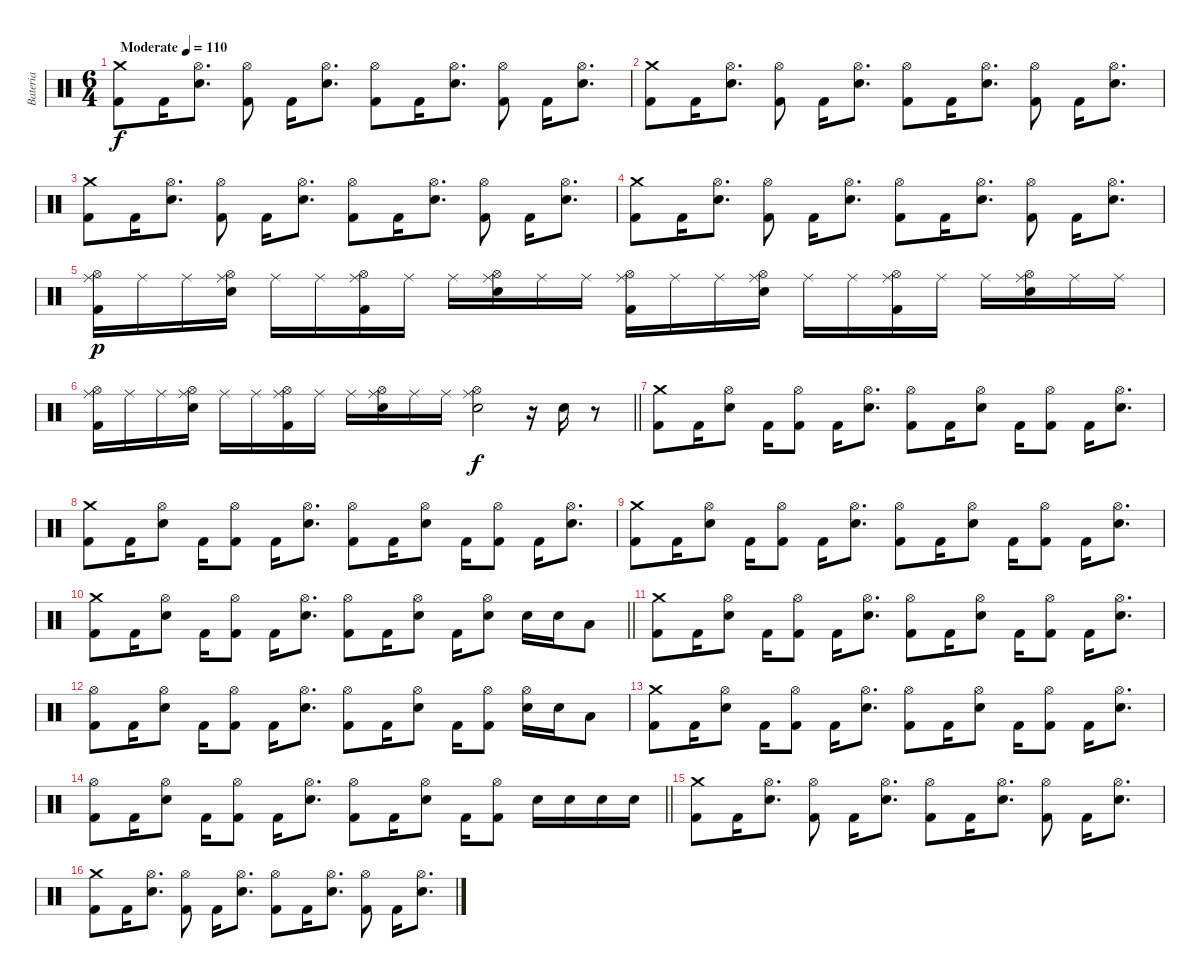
\track ("Bateria" "Bateria") {instrument percussion}
\staff {score}
\articulation defaults
\ts (6 4)
\tempo (110 "Moderate")
\clef neutral
\ks c
("Crash medium (hit)" "Kick (hit) 2").8{dy f} "Kick (hit) 2".16 ("Hi-Hat (open)" "Snare (hit) 2").8{d} ("Hi-Hat (open)" "Kick (hit) 2").8 "Kick (hit) 2".16 ("Hi-Hat (open)" "Snare (hit) 2").8{d} ("Hi-Hat (open)" "Kick (hit) 2").8 "Kick (hit) 2".16 ("Hi-Hat (open)" "Snare (hit) 2").8{d} ("Hi-Hat (open)" "Kick (hit) 2").8 "Kick (hit) 2".16 ("Hi-Hat (open)" "Snare (hit) 2").8{d} |
("Crash medium (hit)" "Kick (hit) 2").8 "Kick (hit) 2".16 ("Hi-Hat (open)" "Snare (hit) 2").8{d} ("Hi-Hat (open)" "Kick (hit) 2").8 "Kick (hit) 2".16 ("Hi-Hat (open)" "Snare (hit) 2").8{d} ("Hi-Hat (open)" "Kick (hit) 2").8 "Kick (hit) 2".16 ("Hi-Hat (open)" "Snare (hit) 2").8{d} ("Hi-Hat (open)" "Kick (hit) 2").8 "Kick (hit) 2".16 ("Hi-Hat (open)" "Snare (hit) 2").8{d} |
("Crash medium (hit)" "Kick (hit) 2").8 "Kick (hit) 2".16 ("Hi-Hat (open)" "Snare (hit) 2").8{d} ("Hi-Hat (open)" "Kick (hit) 2").8 "Kick (hit) 2".16 ("Hi-Hat (open)" "Snare (hit) 2").8{d} ("Hi-Hat (open)" "Kick (hit) 2").8 "Kick (hit) 2".16 ("Hi-Hat (open)" "Snare (hit) 2").8{d} ("Hi-Hat (open)" "Kick (hit) 2").8 "Kick (hit) 2".16 ("Hi-Hat (open)" "Snare (hit) 2").8{d} |
("Crash medium (hit)" "Kick (hit) 2").8 "Kick (hit) 2".16 ("Hi-Hat (open)" "Snare (hit) 2").8{d} ("Hi-Hat (open)" "Kick (hit) 2").8 "Kick (hit) 2".16 ("Hi-Hat (open)" "Snare (hit) 2").8{d} ("Hi-Hat (open)" "Kick (hit) 2").8 "Kick (hit) 2".16 ("Hi-Hat (open)" "Snare (hit) 2").8{d} ("Hi-Hat (open)" "Kick (hit) 2").8 "Kick (hit) 2".16 ("Hi-Hat (open)" "Snare (hit) 2").8{d} |
("Ride (middle)" "Hi-Hat (open)" "Kick (hit) 2").16{dy p} "Ride (middle)".16 "Ride (middle)".16 ("Ride (middle)" "Hi-Hat (open)" "Snare (hit) 2").16 "Ride (middle)".16 "Ride (middle)".16 ("Ride (middle)" "Hi-Hat (open)" "Kick (hit) 2").16 "Ride (middle)".16 "Ride (middle)".16 ("Ride (middle)" "Hi-Hat (open)" "Snare (hit) 2").16 "Ride (middle)".16 "Ride (middle)".16 ("Ride (middle)" "Hi-Hat (open)" "Kick (hit) 2").16 "Ride (middle)".16 "Ride (middle)".16 ("Ride (middle)" "Hi-Hat (open)" "Snare (hit) 2").16 "Ride (middle)".16 "Ride (middle)".16 ("Ride (middle)" "Hi-Hat (open)" "Kick (hit) 2").16 "Ride (middle)".16 "Ride (middle)".16 ("Ride (middle)" "Hi-Hat (open)" "Snare (hit) 2").16 "Ride (middle)".16 "Ride (middle)".16 |
\barLineRight lightlight
("Ride (middle)" "Hi-Hat (open)" "Kick (hit) 2").16 "Ride (middle)".16 "Ride (middle)".16 ("Ride (middle)" "Hi-Hat (open)" "Snare (hit) 2").16 "Ride (middle)".16 "Ride (middle)".16 ("Ride (middle)" "Hi-Hat (open)" "Kick (hit) 2").16 "Ride (middle)".16 "Ride (middle)".16 ("Ride (middle)" "Hi-Hat (open)" "Snare (hit) 2").16 "Ride (middle)".16 "Ride (middle)".16 ("Ride (middle)" "Snare (hit) 2" "Hi-Hat (open)").2{dy f} r.16 "Snare (hit) 2".16 r.8 |
("Crash medium (hit)" "Kick (hit) 2").8 "Kick (hit) 2".16 ("Hi-Hat (open)" "Snare (hit) 2").8 "Kick (hit) 2".16 ("Hi-Hat (open)" "Kick (hit) 2").8 "Kick (hit) 2".16 ("Hi-Hat (open)" "Snare (hit) 2").8{d} ("Hi-Hat (open)" "Kick (hit) 2").8 "Kick (hit) 2".16 ("Hi-Hat (open)" "Snare (hit) 2").8 "Kick (hit) 2".16 ("Hi-Hat (open)" "Kick (hit) 2").8 "Kick (hit) 2".16 ("Hi-Hat (open)" "Snare (hit) 2").8{d} |
("Crash medium (hit)" "Kick (hit) 2").8 "Kick (hit) 2".16 ("Hi-Hat (open)" "Snare (hit) 2").8 "Kick (hit) 2".16 ("Hi-Hat (open)" "Kick (hit) 2").8 "Kick (hit) 2".16 ("Hi-Hat (open)" "Snare (hit) 2").8{d} ("Hi-Hat (open)" "Kick (hit) 2").8 "Kick (hit) 2".16 ("Hi-Hat (open)" "Snare (hit) 2").8 "Kick (hit) 2".16 ("Hi-Hat (open)" "Kick (hit) 2").8 "Kick (hit) 2".16 ("Hi-Hat (open)" "Snare (hit) 2").8{d} |
("Crash medium (hit)" "Kick (hit) 2").8 "Kick (hit) 2".16 ("Hi-Hat (open)" "Snare (hit) 2").8 "Kick (hit) 2".16 ("Hi-Hat (open)" "Kick (hit) 2").8 "Kick (hit) 2".16 ("Hi-Hat (open)" "Snare (hit) 2").8{d} ("Hi-Hat (open)" "Kick (hit) 2").8 "Kick (hit) 2".16 ("Hi-Hat (open)" "Snare (hit) 2").8 "Kick (hit) 2".16 ("Hi-Hat (open)" "Kick (hit) 2").8 "Kick (hit) 2".16 ("Hi-Hat (open)" "Snare (hit) 2").8{d} |
\barLineRight lightlight
("Crash medium (hit)" "Kick (hit) 2").8 "Kick (hit) 2".16 ("Hi-Hat (open)" "Snare (hit) 2").8 "Kick (hit) 2".16 ("Hi-Hat (open)" "Kick (hit) 2").8 "Kick (hit) 2".16 ("Hi-Hat (open)" "Snare (hit) 2").8{d} ("Hi-Hat (open)" "Kick (hit) 2").8 "Kick (hit) 2".16 ("Hi-Hat (open)" "Snare (hit) 2").8 "Kick (hit) 2".16 ("Hi-Hat (open)" "Snare (hit) 2").8 "Snare (hit) 2".16 "Snare (hit) 2".16 "Low Tom (hit)".8 |
("Crash medium (hit)" "Kick (hit) 2").8 "Kick (hit) 2".16 ("Hi-Hat (open)" "Snare (hit) 2").8 "Kick (hit) 2".16 ("Hi-Hat (open)" "Kick (hit) 2").8 "Kick (hit) 2".16 ("Hi-Hat (open)" "Snare (hit) 2").8{d} ("Hi-Hat (open)" "Kick (hit) 2").8 "Kick (hit) 2".16 ("Hi-Hat (open)" "Snare (hit) 2").8 "Kick (hit) 2".16 ("Hi-Hat (open)" "Kick (hit) 2").8 "Kick (hit) 2".16 ("Hi-Hat (open)" "Snare (hit) 2").8{d} |
("Hi-Hat (open)" "Kick (hit) 2").8 "Kick (hit) 2".16 ("Hi-Hat (open)" "Snare (hit) 2").8 "Kick (hit) 2".16 ("Hi-Hat (open)" "Kick (hit) 2").8 "Kick (hit) 2".16 ("Hi-Hat (open)" "Snare (hit) 2").8{d} ("Hi-Hat (open)" "Kick (hit) 2").8 "Kick (hit) 2".16 ("Hi-Hat (open)" "Snare (hit) 2").8 "Kick (hit) 2".16 ("Hi-Hat (open)" "Kick (hit) 2").8 ("Hi-Hat (open)" "Snare (hit) 2").16 "Snare (hit) 2".16 "Low Tom (hit)".8 |
("Crash medium (hit)" "Kick (hit) 2").8 "Kick (hit) 2".16 ("Hi-Hat (open)" "Snare (hit) 2").8 "Kick (hit) 2".16 ("Hi-Hat (open)" "Kick (hit) 2").8 "Kick (hit) 2".16 ("Hi-Hat (open)" "Snare (hit) 2").8{d} ("Hi-Hat (open)" "Kick (hit) 2").8 "Kick (hit) 2".16 ("Hi-Hat (open)" "Snare (hit) 2").8 "Kick (hit) 2".16 ("Hi-Hat (open)" "Kick (hit) 2").8 "Kick (hit) 2".16 ("Hi-Hat (open)" "Snare (hit) 2").8{d} |
\barLineRight lightlight
("Hi-Hat (open)" "Kick (hit) 2").8 "Kick (hit) 2".16 ("Hi-Hat (open)" "Snare (hit) 2").8 "Kick (hit) 2".16 ("Hi-Hat (open)" "Kick (hit) 2").8 "Kick (hit) 2".16 ("Hi-Hat (open)" "Snare (hit) 2").8{d} ("Hi-Hat (open)" "Kick (hit) 2").8 "Kick (hit) 2".16 ("Hi-Hat (open)" "Snare (hit) 2").8 "Kick (hit) 2".16 ("Hi-Hat (open)" "Kick (hit) 2").8 "Snare (hit) 2".16 "Snare (hit) 2".16 "Snare (hit) 2".16 "Snare (hit) 2".16 |
("Crash medium (hit)" "Kick (hit) 2").8 "Kick (hit) 2".16 ("Hi-Hat (open)" "Snare (hit) 2").8{d} ("Hi-Hat (open)" "Kick (hit) 2").8 "Kick (hit) 2".16 ("Hi-Hat (open)" "Snare (hit) 2").8{d} ("Hi-Hat (open)" "Kick (hit) 2").8 "Kick (hit) 2".16 ("Hi-Hat (open)" "Snare (hit) 2").8{d} ("Hi-Hat (open)" "Kick (hit) 2").8 "Kick (hit) 2".16 ("Hi-Hat (open)" "Snare (hit) 2").8{d} |
("Crash medium (hit)" "Kick (hit) 2").8 "Kick (hit) 2".16 ("Hi-Hat (open)" "Snare (hit) 2").8{d} ("Hi-Hat (open)" "Kick (hit) 2").8 "Kick (hit) 2".16 ("Hi-Hat (open)" "Snare (hit) 2").8{d} ("Hi-Hat (open)" "Kick (hit) 2").8 "Kick (hit) 2".16 ("Hi-Hat (open)" "Snare (hit) 2").8{d} ("Hi-Hat (open)" "Kick (hit) 2").8 "Kick (hit) 2".16 ("Hi-Hat (open)" "Snare (hit) 2").8{d}
